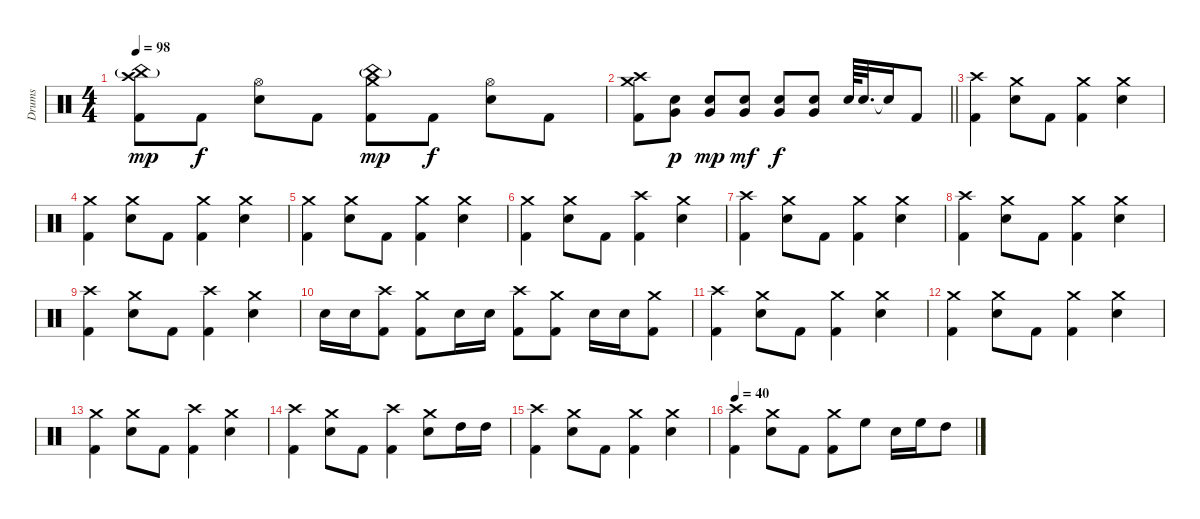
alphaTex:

\track ("Drums" "Drums") {instrument percussion}
\staff {score}
\articulation defaults
\ts (4 4)
\tempo 98
\clef neutral
\ks c
("Crash high (hit)" "China (hit)"{g} "Kick (hit) 2").8{dy mp} "Kick (hit) 2".8{dy f} ("Hi-Hat (open)" "Electric Snare (hit)").8 "Kick (hit) 2".8 ("Crash medium (hit)" "China (hit)"{g} "Kick (hit) 2").8{dy mp} "Kick (hit) 2".8{dy f} ("Hi-Hat (open)" "Electric Snare (hit)").8 "Kick (hit) 2".8 |
\barLineRight lightlight
("Crash high (hit)" "Crash medium (hit)" "Kick (hit) 2").8 ("Very Low Tom (hit)" "Electric Snare (hit)").8{dy p} ("Very Low Tom (hit)" "Electric Snare (hit)").8{dy mp} ("Very Low Tom (hit)" "Electric Snare (hit)").8{dy mf} ("Very Low Tom (hit)" "Electric Snare (hit)").8{dy f} ("Very Low Tom (hit)" "Electric Snare (hit)").8 "Electric Snare (hit)".64 "Electric Snare (hit)".32{d} "Snare (hit)"{t}.16 "Kick (hit) 2".8 |
("Crash high (hit)" "Kick (hit) 2").4 ("Crash medium (hit)" "Electric Snare (hit)").8 "Kick (hit) 2".8 ("Crash medium (hit)" "Kick (hit) 2").4 ("Crash medium (hit)" "Electric Snare (hit)").4 |
("Crash medium (hit)" "Kick (hit) 2").4 ("Crash medium (hit)" "Electric Snare (hit)").8 "Kick (hit) 2".8 ("Crash medium (hit)" "Kick (hit) 2").4 ("Crash medium (hit)" "Electric Snare (hit)").4 |
("Crash medium (hit)" "Kick (hit) 2").4 ("Crash medium (hit)" "Electric Snare (hit)").8 "Kick (hit) 2".8 ("Crash medium (hit)" "Kick (hit) 2").4 ("Crash medium (hit)" "Electric Snare (hit)").4 |
("Crash medium (hit)" "Kick (hit) 2").4 ("Crash medium (hit)" "Electric Snare (hit)").8 "Kick (hit) 2".8 ("Crash high (hit)" "Kick (hit) 2").4 ("Crash medium (hit)" "Electric Snare (hit)").4 |
("Crash high (hit)" "Kick (hit) 2").4 ("Crash medium (hit)" "Electric Snare (hit)").8 "Kick (hit) 2".8 ("Crash medium (hit)" "Kick (hit) 2").4 ("Crash medium (hit)" "Electric Snare (hit)").4 |
("Crash high (hit)" "Kick (hit) 2").4 ("Crash medium (hit)" "Electric Snare (hit)").8 "Kick (hit) 2".8 ("Crash medium (hit)" "Kick (hit) 2").4 ("Crash medium (hit)" "Electric Snare (hit)").4 |
("Crash high (hit)" "Kick (hit) 2").4 ("Crash medium (hit)" "Electric Snare (hit)").8 "Kick (hit) 2".8 ("Crash high (hit)" "Kick (hit) 2").4 ("Crash medium (hit)" "Electric Snare (hit)").4 |
"Electric Snare (hit)".16 "Electric Snare (hit)".16 ("Crash high (hit)" "Kick (hit) 2").8 ("Crash medium (hit)" "Kick (hit) 2").8 "Electric Snare (hit)".16 "Electric Snare (hit)".16 ("Crash high (hit)" "Kick (hit) 2").8 ("Crash medium (hit)" "Kick (hit) 2").8 "Electric Snare (hit)".16 "Electric Snare (hit)".16 ("Crash medium (hit)" "Kick (hit) 2").8 |
("Crash high (hit)" "Kick (hit) 2").4 ("Crash medium (hit)" "Electric Snare (hit)").8 "Kick (hit) 2".8 ("Crash medium (hit)" "Kick (hit) 2").4 ("Crash medium (hit)" "Electric Snare (hit)").4 |
("Crash medium (hit)" "Kick (hit) 2").4 ("Crash medium (hit)" "Electric Snare (hit)").8 "Kick (hit) 2".8 ("Crash medium (hit)" "Kick (hit) 2").4 ("Crash medium (hit)" "Electric Snare (hit)").4 |
("Crash medium (hit)" "Kick (hit) 2").4 ("Crash medium (hit)" "Electric Snare (hit)").8 "Kick (hit) 2".8 ("Crash high (hit)" "Kick (hit) 2").4 ("Crash medium (hit)" "Electric Snare (hit)").4 |
("Crash high (hit)" "Kick (hit) 2").4 ("Crash medium (hit)" "Electric Snare (hit)").8 "Kick (hit) 2".8 ("Crash high (hit)" "Kick (hit) 2").4 ("Crash medium (hit)" "Electric Snare (hit)").8 "High Tom (hit)".16 "High Tom (hit)".16 |
("Crash high (hit)" "Kick (hit) 2").4 ("Crash medium (hit)" "Electric Snare (hit)").8 "Kick (hit) 2".8 ("Crash medium (hit)" "Kick (hit) 2").4 ("Crash medium (hit)" "Electric Snare (hit)").4 |
\tempo 40
("Crash high (hit)" "Kick (hit) 2").4 ("Crash medium (hit)" "Electric Snare (hit)").8 "Kick (hit) 2".8 ("Crash medium (hit)" "Kick (hit) 2").8 "High Floor Tom (hit)".8 "Electric Snare (hit)".16 "High Floor Tom (hit)".16 "High Tom (hit)".8
